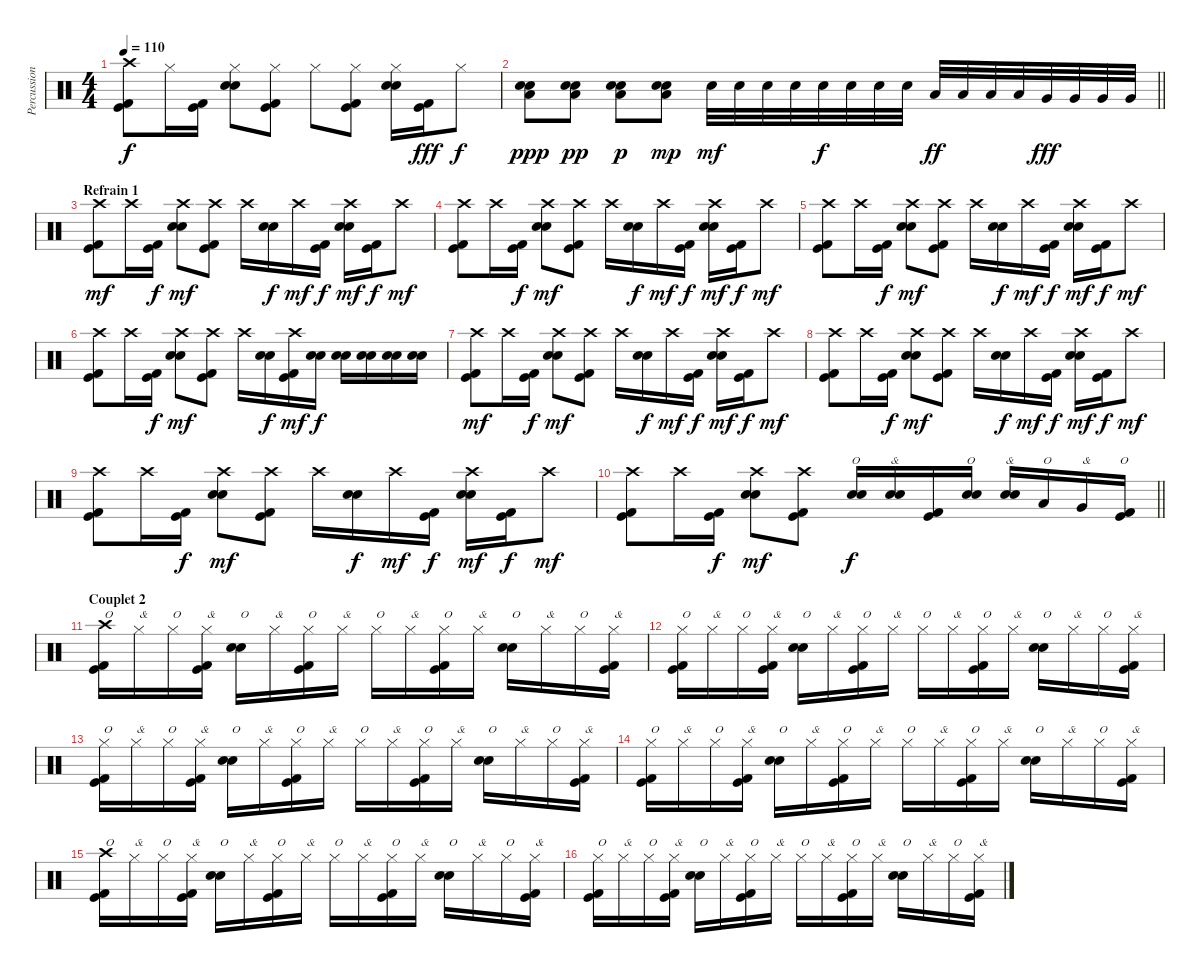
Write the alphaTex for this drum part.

\track ("Percussions" "Percussion") {instrument percussion}
\staff {score}
\articulation defaults
\ts (4 4)
\tempo 110
\clef neutral
\ks c
("Crash high (hit)" "Kick (hit)" "Kick (hit) 2").8{dy f} "Hi-Hat (closed)".16 ("Kick (hit)" "Kick (hit) 2").16 ("Hi-Hat (closed)" "Snare (hit) 2" "Electric Snare (hit)").8 ("Hi-Hat (closed)" "Kick (hit) 2" "Kick (hit)").8 "Hi-Hat (closed)".8 ("Hi-Hat (closed)" "Kick (hit)" "Kick (hit) 2").8 ("Hi-Hat (closed)" "Snare (hit) 2" "Electric Snare (hit)").16 ("Kick (hit)" "Kick (hit) 2").16{dy fff} "Hi-Hat (closed)".8{dy f} |
\barLineRight lightlight
("Low Floor Tom (hit)" "Snare (hit) 2" "Electric Snare (hit)").8{dy ppp} ("Low Floor Tom (hit)" "Snare (hit) 2" "Electric Snare (hit)").8{dy pp} ("Low Floor Tom (hit)" "Snare (hit) 2" "Electric Snare (hit)").8{dy p} ("Low Floor Tom (hit)" "Snare (hit) 2" "Electric Snare (hit)").8{dy mp} "Electric Snare (hit)".32{dy mf} "Electric Snare (hit)".32 "Electric Snare (hit)".32 "Electric Snare (hit)".32 "Electric Snare (hit)".32{dy f} "Electric Snare (hit)".32 "Electric Snare (hit)".32 "Electric Snare (hit)".32 "Low Tom (hit)".32{dy ff} "Low Tom (hit)".32 "Low Tom (hit)".32 "Low Tom (hit)".32 "Very Low Tom (hit)".32{dy fff} "Very Low Tom (hit)".32 "Very Low Tom (hit)".32 "Very Low Tom (hit)".32 |
\section ("" "Refrain 1")
("Crash high (hit)" "Kick (hit)" "Kick (hit) 2").8{dy mf} "Crash high (hit)".16 ("Kick (hit)" "Kick (hit) 2").16{dy f} ("Crash high (hit)" "Snare (hit) 2" "Electric Snare (hit)").8{dy mf} ("Crash high (hit)" "Kick (hit)" "Kick (hit) 2").8 "Crash high (hit)".16 ("Snare (hit) 2" "Electric Snare (hit)").16{dy f} "Crash high (hit)".16{dy mf} ("Kick (hit)" "Kick (hit) 2").16{dy f} ("Crash high (hit)" "Snare (hit) 2" "Electric Snare (hit)").16{dy mf} ("Kick (hit)" "Kick (hit) 2").16{dy f} "Crash high (hit)".8{dy mf} |
("Crash high (hit)" "Kick (hit)" "Kick (hit) 2").8 "Crash high (hit)".16 ("Kick (hit)" "Kick (hit) 2").16{dy f} ("Crash high (hit)" "Snare (hit) 2" "Electric Snare (hit)").8{dy mf} ("Crash high (hit)" "Kick (hit)" "Kick (hit) 2").8 "Crash high (hit)".16 ("Snare (hit) 2" "Electric Snare (hit)").16{dy f} "Crash high (hit)".16{dy mf} ("Kick (hit)" "Kick (hit) 2").16{dy f} ("Crash high (hit)" "Snare (hit) 2" "Electric Snare (hit)").16{dy mf} ("Kick (hit)" "Kick (hit) 2").16{dy f} "Crash high (hit)".8{dy mf} |
("Crash high (hit)" "Kick (hit)" "Kick (hit) 2").8 "Crash high (hit)".16 ("Kick (hit)" "Kick (hit) 2").16{dy f} ("Crash high (hit)" "Snare (hit) 2" "Electric Snare (hit)").8{dy mf} ("Crash high (hit)" "Kick (hit)" "Kick (hit) 2").8 "Crash high (hit)".16 ("Snare (hit) 2" "Electric Snare (hit)").16{dy f} "Crash high (hit)".16{dy mf} ("Kick (hit)" "Kick (hit) 2").16{dy f} ("Crash high (hit)" "Snare (hit) 2" "Electric Snare (hit)").16{dy mf} ("Kick (hit)" "Kick (hit) 2").16{dy f} "Crash high (hit)".8{dy mf} |
("Crash high (hit)" "Kick (hit)" "Kick (hit) 2").8 "Crash high (hit)".16 ("Kick (hit)" "Kick (hit) 2").16{dy f} ("Crash high (hit)" "Snare (hit) 2" "Electric Snare (hit)").8{dy mf} ("Crash high (hit)" "Kick (hit)" "Kick (hit) 2").8 "Crash high (hit)".16 ("Snare (hit) 2" "Electric Snare (hit)").16{dy f} ("Crash high (hit)" "Kick (hit)" "Kick (hit) 2").16{dy mf} ("Snare (hit) 2" "Electric Snare (hit)").16{dy f} ("Snare (hit) 2" "Electric Snare (hit)").16 ("Snare (hit) 2" "Electric Snare (hit)").16 ("Snare (hit) 2" "Electric Snare (hit)").16 ("Snare (hit) 2" "Electric Snare (hit)").16 |
("Crash high (hit)" "Kick (hit)" "Kick (hit) 2").8{dy mf} "Crash high (hit)".16 ("Kick (hit)" "Kick (hit) 2").16{dy f} ("Crash high (hit)" "Snare (hit) 2" "Electric Snare (hit)").8{dy mf} ("Crash high (hit)" "Kick (hit)" "Kick (hit) 2").8 "Crash high (hit)".16 ("Snare (hit) 2" "Electric Snare (hit)").16{dy f} "Crash high (hit)".16{dy mf} ("Kick (hit)" "Kick (hit) 2").16{dy f} ("Crash high (hit)" "Snare (hit) 2" "Electric Snare (hit)").16{dy mf} ("Kick (hit)" "Kick (hit) 2").16{dy f} "Crash high (hit)".8{dy mf} |
("Crash high (hit)" "Kick (hit)" "Kick (hit) 2").8 "Crash high (hit)".16 ("Kick (hit)" "Kick (hit) 2").16{dy f} ("Crash high (hit)" "Snare (hit) 2" "Electric Snare (hit)").8{dy mf} ("Crash high (hit)" "Kick (hit)" "Kick (hit) 2").8 "Crash high (hit)".16 ("Snare (hit) 2" "Electric Snare (hit)").16{dy f} "Crash high (hit)".16{dy mf} ("Kick (hit)" "Kick (hit) 2").16{dy f} ("Crash high (hit)" "Snare (hit) 2" "Electric Snare (hit)").16{dy mf} ("Kick (hit)" "Kick (hit) 2").16{dy f} "Crash high (hit)".8{dy mf} |
("Crash high (hit)" "Kick (hit)" "Kick (hit) 2").8 "Crash high (hit)".16 ("Kick (hit)" "Kick (hit) 2").16{dy f} ("Crash high (hit)" "Snare (hit) 2" "Electric Snare (hit)").8{dy mf} ("Crash high (hit)" "Kick (hit)" "Kick (hit) 2").8 "Crash high (hit)".16 ("Snare (hit) 2" "Electric Snare (hit)").16{dy f} "Crash high (hit)".16{dy mf} ("Kick (hit)" "Kick (hit) 2").16{dy f} ("Crash high (hit)" "Snare (hit) 2" "Electric Snare (hit)").16{dy mf} ("Kick (hit)" "Kick (hit) 2").16{dy f} "Crash high (hit)".8{dy mf} |
\barLineRight lightlight
("Crash high (hit)" "Kick (hit)" "Kick (hit) 2").8 "Crash high (hit)".16 ("Kick (hit)" "Kick (hit) 2").16{dy f} ("Crash high (hit)" "Snare (hit) 2" "Electric Snare (hit)").8{dy mf} ("Crash high (hit)" "Kick (hit)" "Kick (hit) 2").8 ("Snare (hit) 2" "Electric Snare (hit)").16{txt "O" dy f} ("Snare (hit) 2" "Electric Snare (hit)").16{txt "&"} ("Kick (hit)" "Kick (hit) 2").16 ("Snare (hit) 2" "Electric Snare (hit)").16{txt "O"} ("Snare (hit) 2" "Electric Snare (hit)").16{txt "&"} "Low Tom (hit)".16{txt "O"} "Very Low Tom (hit)".16{txt "&"} ("Kick (hit)" "Kick (hit) 2").16{txt "O"} |
\section ("" "Couplet 2")
("Crash high (hit)" "Kick (hit)" "Kick (hit) 2").16{txt "O"} "Hi-Hat (closed)".16{txt "&"} "Hi-Hat (closed)".16{txt "O"} ("Hi-Hat (closed)" "Kick (hit)" "Kick (hit) 2").16{txt "&"} ("Snare (hit) 2" "Electric Snare (hit)").16{txt "O"} "Hi-Hat (closed)".16{txt "&"} ("Hi-Hat (closed)" "Kick (hit) 2" "Kick (hit)").16{txt "O"} "Hi-Hat (closed)".16{txt "&"} "Hi-Hat (closed)".16{txt "O"} "Hi-Hat (closed)".16{txt "&"} ("Hi-Hat (closed)" "Kick (hit)" "Kick (hit) 2").16{txt "O"} "Hi-Hat (closed)".16{txt "&"} ("Snare (hit) 2" "Electric Snare (hit)").16{txt "O"} "Hi-Hat (closed)".16{txt "&"} "Hi-Hat (closed)".16{txt "O"} ("Hi-Hat (closed)" "Kick (hit)" "Kick (hit) 2").16{txt "&"} |
("Hi-Hat (closed)" "Kick (hit)" "Kick (hit) 2").16{txt "O"} "Hi-Hat (closed)".16{txt "&"} "Hi-Hat (closed)".16{txt "O"} ("Hi-Hat (closed)" "Kick (hit)" "Kick (hit) 2").16{txt "&"} ("Snare (hit) 2" "Electric Snare (hit)").16{txt "O"} "Hi-Hat (closed)".16{txt "&"} ("Hi-Hat (closed)" "Kick (hit) 2" "Kick (hit)").16{txt "O"} "Hi-Hat (closed)".16{txt "&"} "Hi-Hat (closed)".16{txt "O"} "Hi-Hat (closed)".16{txt "&"} ("Hi-Hat (closed)" "Kick (hit)" "Kick (hit) 2").16{txt "O"} "Hi-Hat (closed)".16{txt "&"} ("Snare (hit) 2" "Electric Snare (hit)").16{txt "O"} "Hi-Hat (closed)".16{txt "&"} "Hi-Hat (closed)".16{txt "O"} ("Hi-Hat (closed)" "Kick (hit)" "Kick (hit) 2").16{txt "&"} |
("Hi-Hat (closed)" "Kick (hit)" "Kick (hit) 2").16{txt "O"} "Hi-Hat (closed)".16{txt "&"} "Hi-Hat (closed)".16{txt "O"} ("Hi-Hat (closed)" "Kick (hit)" "Kick (hit) 2").16{txt "&"} ("Snare (hit) 2" "Electric Snare (hit)").16{txt "O"} "Hi-Hat (closed)".16{txt "&"} ("Hi-Hat (closed)" "Kick (hit) 2" "Kick (hit)").16{txt "O"} "Hi-Hat (closed)".16{txt "&"} "Hi-Hat (closed)".16{txt "O"} "Hi-Hat (closed)".16{txt "&"} ("Hi-Hat (closed)" "Kick (hit)" "Kick (hit) 2").16{txt "O"} "Hi-Hat (closed)".16{txt "&"} ("Snare (hit) 2" "Electric Snare (hit)").16{txt "O"} "Hi-Hat (closed)".16{txt "&"} "Hi-Hat (closed)".16{txt "O"} ("Hi-Hat (closed)" "Kick (hit)" "Kick (hit) 2").16{txt "&"} |
("Hi-Hat (closed)" "Kick (hit)" "Kick (hit) 2").16{txt "O"} "Hi-Hat (closed)".16{txt "&"} "Hi-Hat (closed)".16{txt "O"} ("Hi-Hat (closed)" "Kick (hit)" "Kick (hit) 2").16{txt "&"} ("Snare (hit) 2" "Electric Snare (hit)").16{txt "O"} "Hi-Hat (closed)".16{txt "&"} ("Hi-Hat (closed)" "Kick (hit) 2" "Kick (hit)").16{txt "O"} "Hi-Hat (closed)".16{txt "&"} "Hi-Hat (closed)".16{txt "O"} "Hi-Hat (closed)".16{txt "&"} ("Hi-Hat (closed)" "Kick (hit)" "Kick (hit) 2").16{txt "O"} "Hi-Hat (closed)".16{txt "&"} ("Snare (hit) 2" "Electric Snare (hit)").16{txt "O"} "Hi-Hat (closed)".16{txt "&"} "Hi-Hat (closed)".16{txt "O"} ("Hi-Hat (closed)" "Kick (hit)" "Kick (hit) 2").16{txt "&"} |
("Crash high (hit)" "Kick (hit)" "Kick (hit) 2").16{txt "O"} "Hi-Hat (closed)".16{txt "&"} "Hi-Hat (closed)".16{txt "O"} ("Hi-Hat (closed)" "Kick (hit)" "Kick (hit) 2").16{txt "&"} ("Snare (hit) 2" "Electric Snare (hit)").16{txt "O"} "Hi-Hat (closed)".16{txt "&"} ("Hi-Hat (closed)" "Kick (hit) 2" "Kick (hit)").16{txt "O"} "Hi-Hat (closed)".16{txt "&"} "Hi-Hat (closed)".16{txt "O"} "Hi-Hat (closed)".16{txt "&"} ("Hi-Hat (closed)" "Kick (hit)" "Kick (hit) 2").16{txt "O"} "Hi-Hat (closed)".16{txt "&"} ("Snare (hit) 2" "Electric Snare (hit)").16{txt "O"} "Hi-Hat (closed)".16{txt "&"} "Hi-Hat (closed)".16{txt "O"} ("Hi-Hat (closed)" "Kick (hit)" "Kick (hit) 2").16{txt "&"} |
("Hi-Hat (closed)" "Kick (hit)" "Kick (hit) 2").16{txt "O"} "Hi-Hat (closed)".16{txt "&"} "Hi-Hat (closed)".16{txt "O"} ("Hi-Hat (closed)" "Kick (hit)" "Kick (hit) 2").16{txt "&"} ("Snare (hit) 2" "Electric Snare (hit)").16{txt "O"} "Hi-Hat (closed)".16{txt "&"} ("Hi-Hat (closed)" "Kick (hit) 2" "Kick (hit)").16{txt "O"} "Hi-Hat (closed)".16{txt "&"} "Hi-Hat (closed)".16{txt "O"} "Hi-Hat (closed)".16{txt "&"} ("Hi-Hat (closed)" "Kick (hit)" "Kick (hit) 2").16{txt "O"} "Hi-Hat (closed)".16{txt "&"} ("Snare (hit) 2" "Electric Snare (hit)").16{txt "O"} "Hi-Hat (closed)".16{txt "&"} "Hi-Hat (closed)".16{txt "O"} ("Hi-Hat (closed)" "Kick (hit)" "Kick (hit) 2").16{txt "&"}
